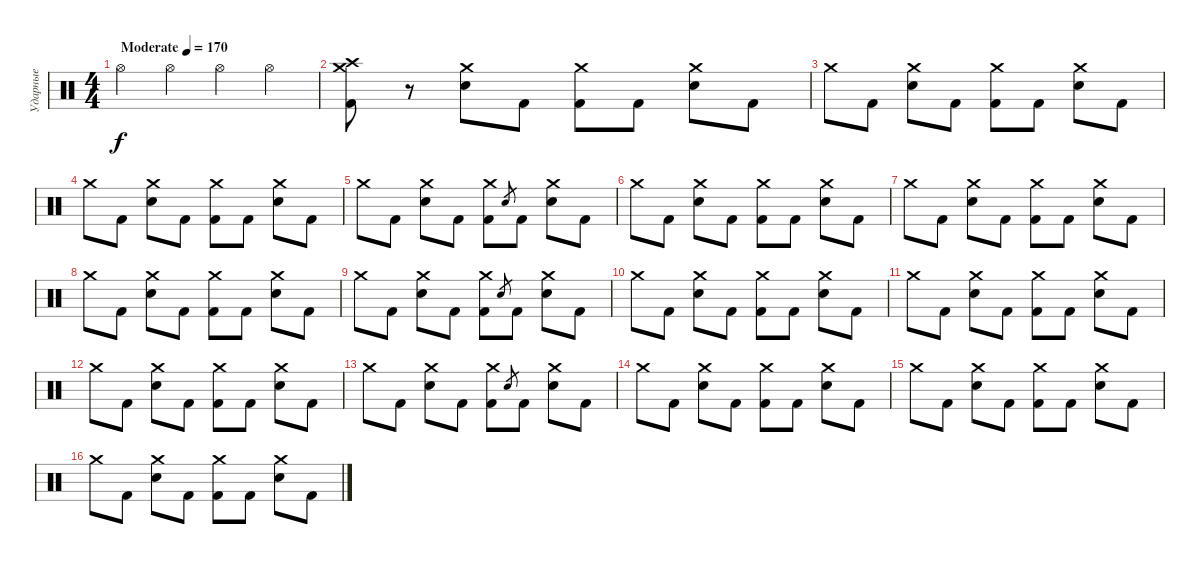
\track ("Ударные" "Ударные") {instrument percussion}
\staff {score}
\articulation defaults
\ts (4 4)
\tempo (170 "Moderate")
\clef neutral
\ks c "Hi-Hat (open)".4{dy f} "Hi-Hat (open)".4 "Hi-Hat (open)".4 "Hi-Hat (open)".4
|
("Crash medium (hit)" "Crash high (hit)" "Kick (hit) 2").8 r.8 ("Crash medium (hit)" "Electric Snare (hit)").8 "Kick (hit) 2".8 ("Crash medium (hit)" "Kick (hit) 2").8 "Kick (hit) 2".8 ("Crash medium (hit)" "Electric Snare (hit)").8 "Kick (hit) 2".8 |
"Crash medium (hit)".8 "Kick (hit) 2".8 ("Crash medium (hit)" "Electric Snare (hit)").8 "Kick (hit) 2".8 ("Crash medium (hit)" "Kick (hit) 2").8 "Kick (hit) 2".8 ("Crash medium (hit)" "Electric Snare (hit)").8 "Kick (hit) 2".8 |
"Crash medium (hit)".8 "Kick (hit) 2".8 ("Crash medium (hit)" "Electric Snare (hit)").8 "Kick (hit) 2".8 ("Crash medium (hit)" "Kick (hit) 2").8 "Kick (hit) 2".8 ("Crash medium (hit)" "Electric Snare (hit)").8 "Kick (hit) 2".8 |
"Crash medium (hit)".8 "Kick (hit) 2".8 ("Crash medium (hit)" "Electric Snare (hit)").8 "Kick (hit) 2".8 ("Crash medium (hit)" "Kick (hit) 2").8 "Electric Snare (hit)".8{gr} "Kick (hit) 2".8 ("Crash medium (hit)" "Electric Snare (hit)").8 "Kick (hit) 2".8 |
"Crash medium (hit)".8 "Kick (hit) 2".8 ("Crash medium (hit)" "Electric Snare (hit)").8 "Kick (hit) 2".8 ("Crash medium (hit)" "Kick (hit) 2").8 "Kick (hit) 2".8 ("Crash medium (hit)" "Electric Snare (hit)").8 "Kick (hit) 2".8 |
"Crash medium (hit)".8 "Kick (hit) 2".8 ("Crash medium (hit)" "Electric Snare (hit)").8 "Kick (hit) 2".8 ("Crash medium (hit)" "Kick (hit) 2").8 "Kick (hit) 2".8 ("Crash medium (hit)" "Electric Snare (hit)").8 "Kick (hit) 2".8 |
"Crash medium (hit)".8 "Kick (hit) 2".8 ("Crash medium (hit)" "Electric Snare (hit)").8 "Kick (hit) 2".8 ("Crash medium (hit)" "Kick (hit) 2").8 "Kick (hit) 2".8 ("Crash medium (hit)" "Electric Snare (hit)").8 "Kick (hit) 2".8 |
"Crash medium (hit)".8 "Kick (hit) 2".8 ("Crash medium (hit)" "Electric Snare (hit)").8 "Kick (hit) 2".8 ("Crash medium (hit)" "Kick (hit) 2").8 "Electric Snare (hit)".8{gr} "Kick (hit) 2".8 ("Crash medium (hit)" "Electric Snare (hit)").8 "Kick (hit) 2".8 |
"Crash medium (hit)".8 "Kick (hit) 2".8 ("Crash medium (hit)" "Electric Snare (hit)").8 "Kick (hit) 2".8 ("Crash medium (hit)" "Kick (hit) 2").8 "Kick (hit) 2".8 ("Crash medium (hit)" "Electric Snare (hit)").8 "Kick (hit) 2".8 |
"Crash medium (hit)".8 "Kick (hit) 2".8 ("Crash medium (hit)" "Electric Snare (hit)").8 "Kick (hit) 2".8 ("Crash medium (hit)" "Kick (hit) 2").8 "Kick (hit) 2".8 ("Crash medium (hit)" "Electric Snare (hit)").8 "Kick (hit) 2".8 |
"Crash medium (hit)".8 "Kick (hit) 2".8 ("Crash medium (hit)" "Electric Snare (hit)").8 "Kick (hit) 2".8 ("Crash medium (hit)" "Kick (hit) 2").8 "Kick (hit) 2".8 ("Crash medium (hit)" "Electric Snare (hit)").8 "Kick (hit) 2".8 |
"Crash medium (hit)".8 "Kick (hit) 2".8 ("Crash medium (hit)" "Electric Snare (hit)").8 "Kick (hit) 2".8 ("Crash medium (hit)" "Kick (hit) 2").8 "Electric Snare (hit)".8{gr} "Kick (hit) 2".8 ("Crash medium (hit)" "Electric Snare (hit)").8 "Kick (hit) 2".8 |
"Crash medium (hit)".8 "Kick (hit) 2".8 ("Crash medium (hit)" "Electric Snare (hit)").8 "Kick (hit) 2".8 ("Crash medium (hit)" "Kick (hit) 2").8 "Kick (hit) 2".8 ("Crash medium (hit)" "Electric Snare (hit)").8 "Kick (hit) 2".8 |
"Crash medium (hit)".8 "Kick (hit) 2".8 ("Crash medium (hit)" "Electric Snare (hit)").8 "Kick (hit) 2".8 ("Crash medium (hit)" "Kick (hit) 2").8 "Kick (hit) 2".8 ("Crash medium (hit)" "Electric Snare (hit)").8 "Kick (hit) 2".8 |
"Crash medium (hit)".8 "Kick (hit) 2".8 ("Crash medium (hit)" "Electric Snare (hit)").8 "Kick (hit) 2".8 ("Crash medium (hit)" "Kick (hit) 2").8 "Kick (hit) 2".8 ("Crash medium (hit)" "Electric Snare (hit)").8 "Kick (hit) 2".8
